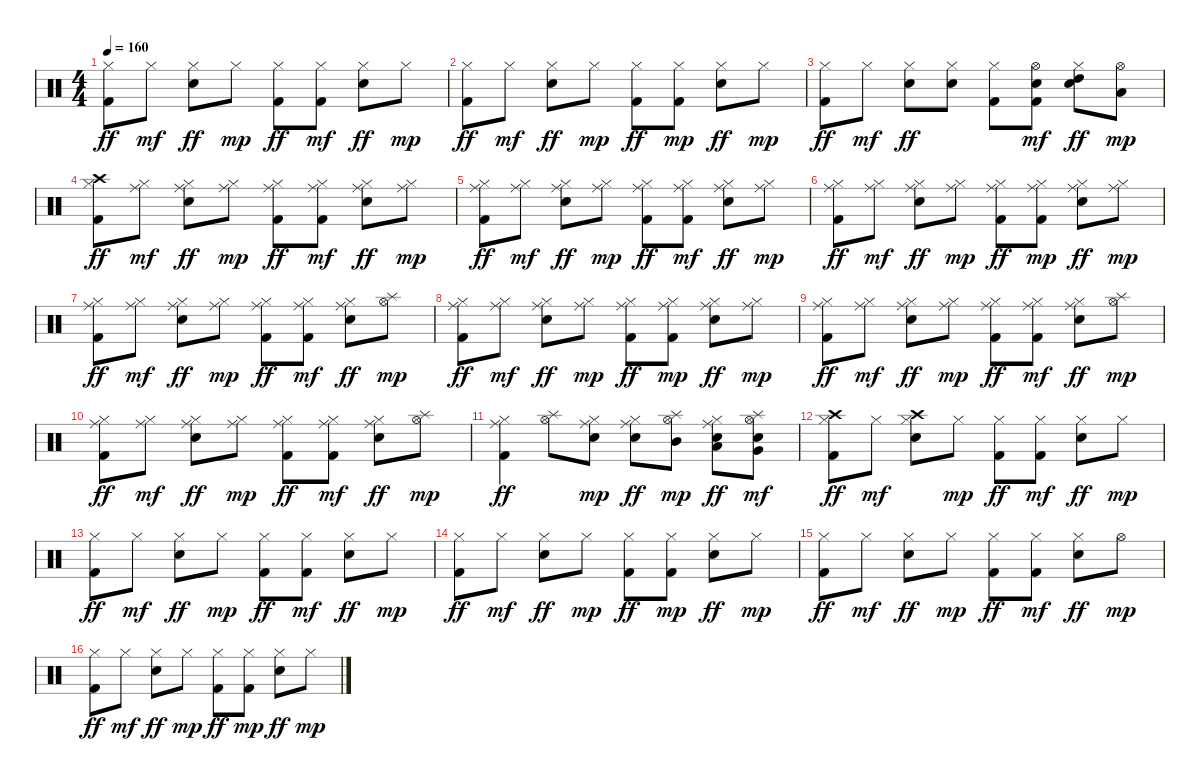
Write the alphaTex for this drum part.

\track "" {instrument percussion}
\staff {score}
\articulation defaults
\ts (4 4)
\tempo 160
\clef neutral
\ks c
("Hi-Hat (closed)" "Kick (hit) 2").8{dy ff} "Hi-Hat (closed)".8{dy mf} ("Snare (hit) 2" "Hi-Hat (closed)").8{dy ff} "Hi-Hat (closed)".8{dy mp} ("Hi-Hat (closed)" "Kick (hit) 2").8{dy ff} ("Hi-Hat (closed)" "Kick (hit) 2").8{dy mf} ("Snare (hit) 2" "Hi-Hat (closed)").8{dy ff} "Hi-Hat (closed)".8{dy mp} |
("Hi-Hat (closed)" "Kick (hit) 2").8{dy ff} "Hi-Hat (closed)".8{dy mf} ("Snare (hit) 2" "Hi-Hat (closed)").8{dy ff} "Hi-Hat (closed)".8{dy mp} ("Kick (hit) 2" "Hi-Hat (closed)").8{dy ff} ("Kick (hit) 2" "Hi-Hat (closed)").8{dy mp} ("Hi-Hat (closed)" "Snare (hit) 2").8{dy ff} "Hi-Hat (closed)".8{dy mp} |
("Hi-Hat (closed)" "Kick (hit) 2").8{dy ff} "Hi-Hat (closed)".8{dy mf} ("Snare (hit) 2" "Hi-Hat (closed)").8{dy ff} ("Hi-Hat (closed)" "Snare (hit) 2").8 ("Hi-Hat (closed)" "Kick (hit) 2").8 ("Hi-Hat (open)" "Snare (hit) 2" "Kick (hit) 2").8{dy mf} ("High Tom (hit)" "Hi-Hat (closed)" "Snare (hit) 2").8{dy ff} ("Hi-Hat (open)" "Low Tom (hit)").8{dy mp} |
("Kick (hit) 2" "Crash high (hit)" "Hi-Hat (closed)").8{dy ff} ("Hi-Hat (closed)" "Ride (middle)").8{dy mf} ("Snare (hit) 2" "Hi-Hat (closed)" "Ride (middle)").8{dy ff} ("Ride (middle)" "Hi-Hat (closed)").8{dy mp} ("Hi-Hat (closed)" "Kick (hit) 2" "Ride (middle)").8{dy ff} ("Ride (middle)" "Hi-Hat (closed)" "Kick (hit) 2").8{dy mf} ("Snare (hit) 2" "Ride (middle)" "Hi-Hat (closed)").8{dy ff} ("Ride (middle)" "Hi-Hat (closed)").8{dy mp} |
("Ride (middle)" "Hi-Hat (closed)" "Kick (hit) 2").8{dy ff} ("Hi-Hat (closed)" "Ride (middle)").8{dy mf} ("Snare (hit) 2" "Ride (middle)" "Hi-Hat (closed)").8{dy ff} ("Ride (middle)" "Hi-Hat (closed)").8{dy mp} ("Ride (middle)" "Hi-Hat (closed)" "Kick (hit) 2").8{dy ff} ("Ride (middle)" "Hi-Hat (closed)" "Kick (hit) 2").8{dy mf} ("Hi-Hat (closed)" "Ride (middle)" "Snare (hit) 2").8{dy ff} ("Hi-Hat (closed)" "Ride (middle)").8{dy mp} |
("Hi-Hat (closed)" "Ride (middle)" "Kick (hit) 2").8{dy ff} ("Ride (middle)" "Hi-Hat (closed)").8{dy mf} ("Hi-Hat (closed)" "Snare (hit) 2" "Ride (middle)").8{dy ff} ("Ride (middle)" "Hi-Hat (closed)").8{dy mp} ("Ride (middle)" "Hi-Hat (closed)" "Kick (hit) 2").8{dy ff} ("Ride (middle)" "Kick (hit) 2" "Hi-Hat (closed)").8{dy mp} ("Snare (hit) 2" "Hi-Hat (closed)" "Ride (middle)").8{dy ff} ("Hi-Hat (closed)" "Ride (middle)").8{dy mp} |
("Ride (middle)" "Hi-Hat (closed)" "Kick (hit) 2").8{dy ff} ("Hi-Hat (closed)" "Ride (middle)").8{dy mf} ("Snare (hit) 2" "Hi-Hat (closed)" "Ride (middle)").8{dy ff} ("Ride (middle)" "Hi-Hat (closed)").8{dy mp} ("Hi-Hat (closed)" "Ride (middle)" "Kick (hit) 2").8{dy ff} ("Ride (middle)" "Hi-Hat (closed)" "Kick (hit) 2").8{dy mf} ("Snare (hit) 2" "Hi-Hat (closed)" "Ride (middle)").8{dy ff} ("Hi-Hat (open)" "Splash (hit)").8{dy mp} |
("Kick (hit) 2" "Ride (middle)" "Hi-Hat (closed)").8{dy ff} ("Hi-Hat (closed)" "Ride (middle)").8{dy mf} ("Snare (hit) 2" "Ride (middle)" "Hi-Hat (closed)").8{dy ff} ("Ride (middle)" "Hi-Hat (closed)").8{dy mp} ("Hi-Hat (closed)" "Ride (middle)" "Kick (hit) 2").8{dy ff} ("Ride (middle)" "Kick (hit) 2" "Hi-Hat (closed)").8{dy mp} ("Ride (middle)" "Snare (hit) 2" "Hi-Hat (closed)").8{dy ff} ("Hi-Hat (closed)" "Ride (middle)").8{dy mp} |
("Ride (middle)" "Hi-Hat (closed)" "Kick (hit) 2").8{dy ff} ("Ride (middle)" "Hi-Hat (closed)").8{dy mf} ("Snare (hit) 2" "Hi-Hat (closed)" "Ride (middle)").8{dy ff} ("Hi-Hat (closed)" "Ride (middle)").8{dy mp} ("Hi-Hat (closed)" "Ride (middle)" "Kick (hit) 2").8{dy ff} ("Ride (middle)" "Hi-Hat (closed)" "Kick (hit) 2").8{dy mf} ("Ride (middle)" "Snare (hit) 2" "Hi-Hat (closed)").8{dy ff} ("Hi-Hat (open)" "Splash (hit)").8{dy mp} |
("Hi-Hat (closed)" "Ride (middle)" "Kick (hit) 2").8{dy ff} ("Ride (middle)" "Hi-Hat (closed)").8{dy mf} ("Snare (hit) 2" "Ride (middle)" "Hi-Hat (closed)").8{dy ff} ("Hi-Hat (closed)" "Ride (middle)").8{dy mp} ("Hi-Hat (closed)" "Ride (middle)" "Kick (hit) 2").8{dy ff} ("Hi-Hat (closed)" "Ride (middle)" "Kick (hit) 2").8{dy mf} ("Snare (hit) 2" "Hi-Hat (closed)" "Ride (middle)").8{dy ff} ("Splash (hit)" "Hi-Hat (open)").8{dy mp} |
("Ride (middle)" "Kick (hit) 2" "Hi-Hat (closed)").4{dy ff} ("Hi-Hat (open)" "Splash (hit)").8 ("Hi-Hat (closed)" "Ride (middle)" "Snare (hit) 2").8{dy mp} ("Ride (middle)" "Hi-Hat (closed)" "Snare (hit) 2").8{dy ff} ("Hi-Hat (open)" "Splash (hit)" "Mid Tom (hit)").8{dy mp} ("Hi-Hat (closed)" "Snare (hit) 2" "Ride (middle)" "Low Tom (hit)").8{dy ff} ("Very Low Tom (hit)" "Hi-Hat (open)" "Splash (hit)" "Snare (hit) 2").8{dy mf} |
("Crash high (hit)" "Hi-Hat (closed)" "Kick (hit) 2").8{dy ff} "Hi-Hat (closed)".8{dy mf} ("Snare (hit) 2" "Hi-Hat (closed)" "Crash high (hit)").8 "Hi-Hat (closed)".8{dy mp} ("Hi-Hat (closed)" "Kick (hit) 2").8{dy ff} ("Hi-Hat (closed)" "Kick (hit) 2").8{dy mf} ("Hi-Hat (closed)" "Snare (hit) 2").8{dy ff} "Hi-Hat (closed)".8{dy mp} |
("Hi-Hat (closed)" "Kick (hit) 2").8{dy ff} "Hi-Hat (closed)".8{dy mf} ("Snare (hit) 2" "Hi-Hat (closed)").8{dy ff} "Hi-Hat (closed)".8{dy mp} ("Hi-Hat (closed)" "Kick (hit) 2").8{dy ff} ("Hi-Hat (closed)" "Kick (hit) 2").8{dy mf} ("Hi-Hat (closed)" "Snare (hit) 2").8{dy ff} "Hi-Hat (closed)".8{dy mp} |
("Kick (hit) 2" "Hi-Hat (closed)").8{dy ff} "Hi-Hat (closed)".8{dy mf} ("Hi-Hat (closed)" "Snare (hit) 2").8{dy ff} "Hi-Hat (closed)".8{dy mp} ("Kick (hit) 2" "Hi-Hat (closed)").8{dy ff} ("Kick (hit) 2" "Hi-Hat (closed)").8{dy mp} ("Snare (hit) 2" "Hi-Hat (closed)").8{dy ff} "Hi-Hat (closed)".8{dy mp} |
("Hi-Hat (closed)" "Kick (hit) 2").8{dy ff} "Hi-Hat (closed)".8{dy mf} ("Snare (hit) 2" "Hi-Hat (closed)").8{dy ff} "Hi-Hat (closed)".8{dy mp} ("Hi-Hat (closed)" "Kick (hit) 2").8{dy ff} ("Hi-Hat (closed)" "Kick (hit) 2").8{dy mf} ("Hi-Hat (closed)" "Snare (hit) 2").8{dy ff} "Hi-Hat (open)".8{dy mp} |
("Kick (hit) 2" "Hi-Hat (closed)").8{dy ff} "Hi-Hat (closed)".8{dy mf} ("Snare (hit) 2" "Hi-Hat (closed)").8{dy ff} "Hi-Hat (closed)".8{dy mp} ("Kick (hit) 2" "Hi-Hat (closed)").8{dy ff} ("Kick (hit) 2" "Hi-Hat (closed)").8{dy mp} ("Hi-Hat (closed)" "Snare (hit) 2").8{dy ff} "Hi-Hat (closed)".8{dy mp}
